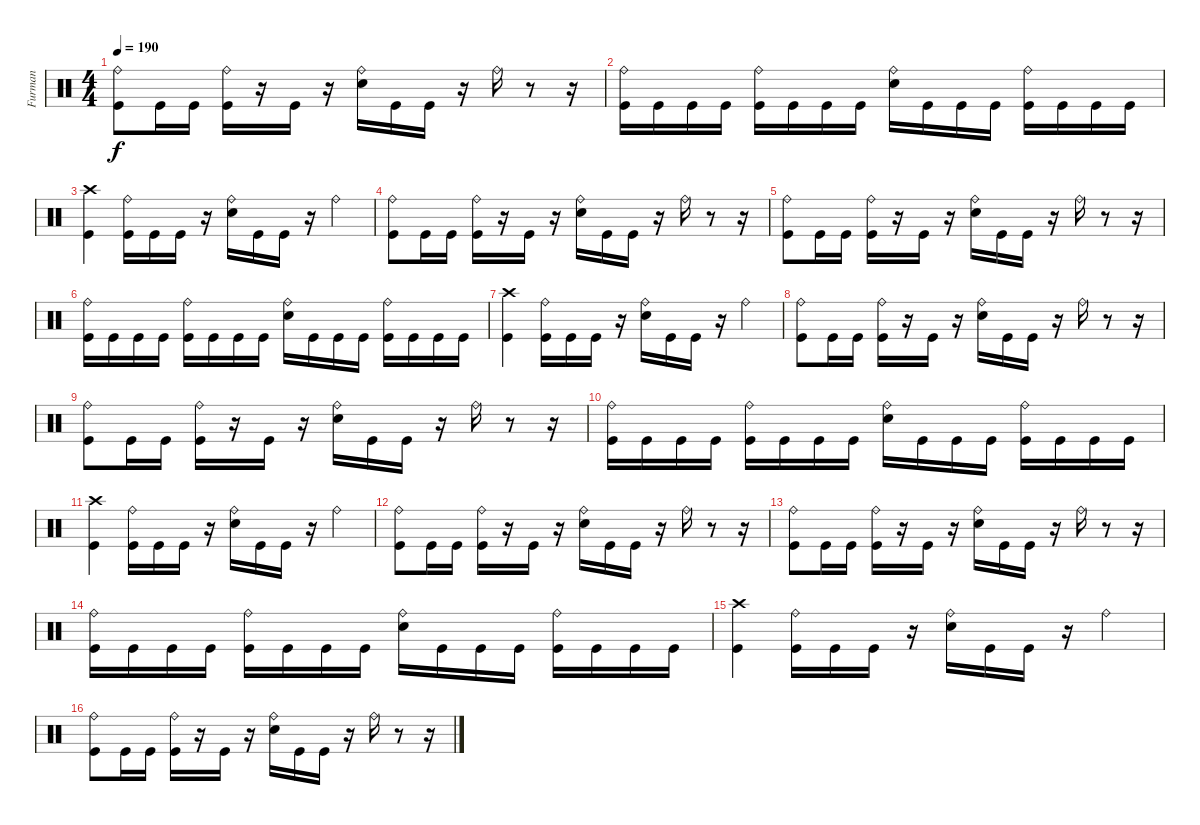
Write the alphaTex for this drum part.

\track ("Furman" "Furman") {instrument percussion}
\staff {score}
\articulation defaults
\ts (4 4)
\tempo 190
\clef neutral
\ks c
("Ride (bell)" "Kick (hit)").8{dy f} "Kick (hit)".16 "Kick (hit)".16 ("Ride (bell)" "Kick (hit)").16 r.16 "Kick (hit)".16 r.16 ("Ride (bell)" "Electric Snare (hit)").16 "Kick (hit)".16 "Kick (hit)".16 r.16 "Ride (bell)".16 r.8 r.16 |
("Ride (bell)" "Kick (hit)").16 "Kick (hit)".16 "Kick (hit)".16 "Kick (hit)".16 ("Ride (bell)" "Kick (hit)").16 "Kick (hit)".16 "Kick (hit)".16 "Kick (hit)".16 ("Ride (bell)" "Electric Snare (hit)").16 "Kick (hit)".16 "Kick (hit)".16 "Kick (hit)".16 ("Ride (bell)" "Kick (hit)").16 "Kick (hit)".16 "Kick (hit)".16 "Kick (hit)".16 |
("Crash high (hit)" "Kick (hit)").4 ("Ride (bell)" "Kick (hit)").16 "Kick (hit)".16 "Kick (hit)".16 r.16 ("Ride (bell)" "Electric Snare (hit)").16 "Kick (hit)".16 "Kick (hit)".16 r.16 "Ride (bell)".4 |
("Ride (bell)" "Kick (hit)").8 "Kick (hit)".16 "Kick (hit)".16 ("Ride (bell)" "Kick (hit)").16 r.16 "Kick (hit)".16 r.16 ("Ride (bell)" "Electric Snare (hit)").16 "Kick (hit)".16 "Kick (hit)".16 r.16 "Ride (bell)".16 r.8 r.16 |
("Ride (bell)" "Kick (hit)").8 "Kick (hit)".16 "Kick (hit)".16 ("Ride (bell)" "Kick (hit)").16 r.16 "Kick (hit)".16 r.16 ("Ride (bell)" "Electric Snare (hit)").16 "Kick (hit)".16 "Kick (hit)".16 r.16 "Ride (bell)".16 r.8 r.16 |
("Ride (bell)" "Kick (hit)").16 "Kick (hit)".16 "Kick (hit)".16 "Kick (hit)".16 ("Ride (bell)" "Kick (hit)").16 "Kick (hit)".16 "Kick (hit)".16 "Kick (hit)".16 ("Ride (bell)" "Electric Snare (hit)").16 "Kick (hit)".16 "Kick (hit)".16 "Kick (hit)".16 ("Ride (bell)" "Kick (hit)").16 "Kick (hit)".16 "Kick (hit)".16 "Kick (hit)".16 |
("Crash high (hit)" "Kick (hit)").4 ("Ride (bell)" "Kick (hit)").16 "Kick (hit)".16 "Kick (hit)".16 r.16 ("Ride (bell)" "Electric Snare (hit)").16 "Kick (hit)".16 "Kick (hit)".16 r.16 "Ride (bell)".4 |
("Ride (bell)" "Kick (hit)").8 "Kick (hit)".16 "Kick (hit)".16 ("Ride (bell)" "Kick (hit)").16 r.16 "Kick (hit)".16 r.16 ("Ride (bell)" "Electric Snare (hit)").16 "Kick (hit)".16 "Kick (hit)".16 r.16 "Ride (bell)".16 r.8 r.16 |
("Ride (bell)" "Kick (hit)").8 "Kick (hit)".16 "Kick (hit)".16 ("Ride (bell)" "Kick (hit)").16 r.16 "Kick (hit)".16 r.16 ("Ride (bell)" "Electric Snare (hit)").16 "Kick (hit)".16 "Kick (hit)".16 r.16 "Ride (bell)".16 r.8 r.16 |
("Ride (bell)" "Kick (hit)").16 "Kick (hit)".16 "Kick (hit)".16 "Kick (hit)".16 ("Ride (bell)" "Kick (hit)").16 "Kick (hit)".16 "Kick (hit)".16 "Kick (hit)".16 ("Ride (bell)" "Electric Snare (hit)").16 "Kick (hit)".16 "Kick (hit)".16 "Kick (hit)".16 ("Ride (bell)" "Kick (hit)").16 "Kick (hit)".16 "Kick (hit)".16 "Kick (hit)".16 |
("Crash high (hit)" "Kick (hit)").4 ("Ride (bell)" "Kick (hit)").16 "Kick (hit)".16 "Kick (hit)".16 r.16 ("Ride (bell)" "Electric Snare (hit)").16 "Kick (hit)".16 "Kick (hit)".16 r.16 "Ride (bell)".4 |
("Ride (bell)" "Kick (hit)").8 "Kick (hit)".16 "Kick (hit)".16 ("Ride (bell)" "Kick (hit)").16 r.16 "Kick (hit)".16 r.16 ("Ride (bell)" "Electric Snare (hit)").16 "Kick (hit)".16 "Kick (hit)".16 r.16 "Ride (bell)".16 r.8 r.16 |
("Ride (bell)" "Kick (hit)").8 "Kick (hit)".16 "Kick (hit)".16 ("Ride (bell)" "Kick (hit)").16 r.16 "Kick (hit)".16 r.16 ("Ride (bell)" "Electric Snare (hit)").16 "Kick (hit)".16 "Kick (hit)".16 r.16 "Ride (bell)".16 r.8 r.16 |
("Ride (bell)" "Kick (hit)").16 "Kick (hit)".16 "Kick (hit)".16 "Kick (hit)".16 ("Ride (bell)" "Kick (hit)").16 "Kick (hit)".16 "Kick (hit)".16 "Kick (hit)".16 ("Ride (bell)" "Electric Snare (hit)").16 "Kick (hit)".16 "Kick (hit)".16 "Kick (hit)".16 ("Ride (bell)" "Kick (hit)").16 "Kick (hit)".16 "Kick (hit)".16 "Kick (hit)".16 |
("Crash high (hit)" "Kick (hit)").4 ("Ride (bell)" "Kick (hit)").16 "Kick (hit)".16 "Kick (hit)".16 r.16 ("Ride (bell)" "Electric Snare (hit)").16 "Kick (hit)".16 "Kick (hit)".16 r.16 "Ride (bell)".4 |
("Ride (bell)" "Kick (hit)").8 "Kick (hit)".16 "Kick (hit)".16 ("Ride (bell)" "Kick (hit)").16 r.16 "Kick (hit)".16 r.16 ("Ride (bell)" "Electric Snare (hit)").16 "Kick (hit)".16 "Kick (hit)".16 r.16 "Ride (bell)".16 r.8 r.16
